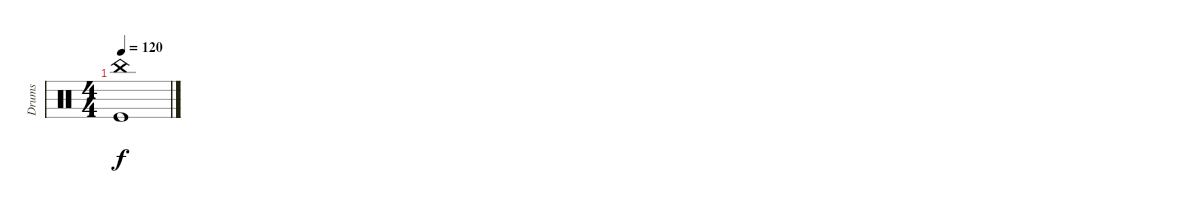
\track ("Drums" "Drums") {instrument percussion}
\staff {score}
\articulation defaults
\ts (4 4)
\tempo 120
\clef neutral
\ks c
("China (hit)" "Kick (hit)").1{dy f}
